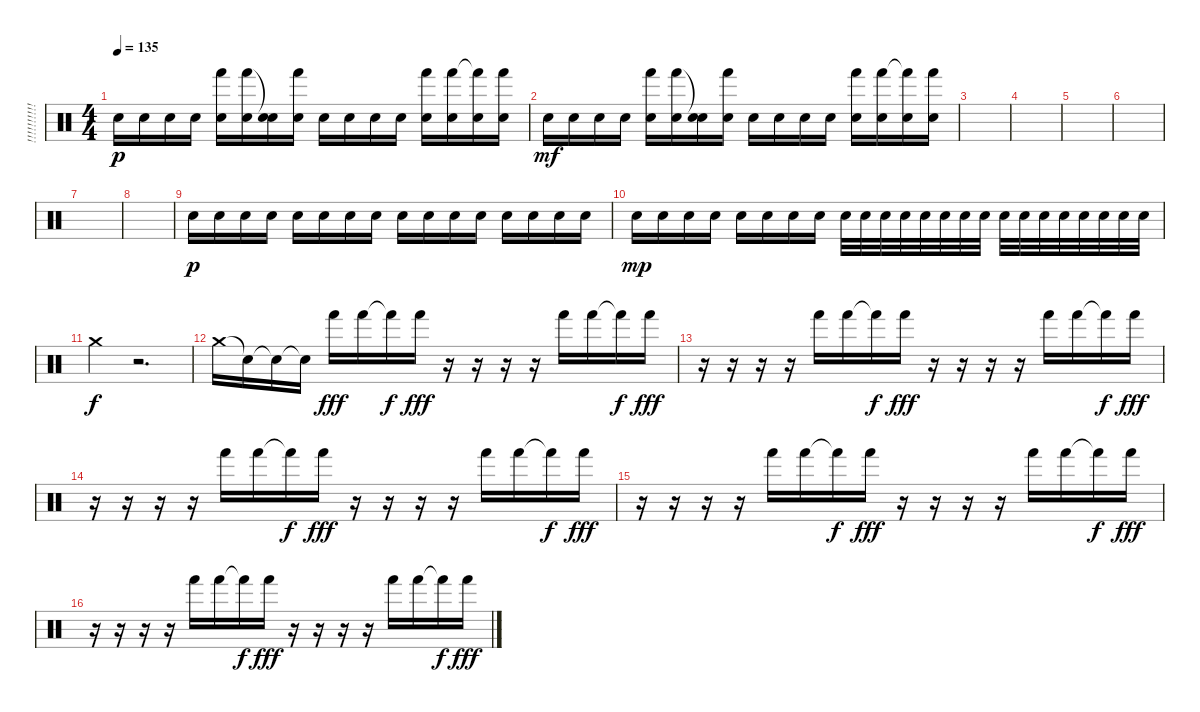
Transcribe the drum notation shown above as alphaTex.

\track ("!!!!!!!!!!!!!" "!!!!!!!!!!") {instrument percussion}
\staff {score}
\articulation defaults
\ts (4 4)
\tempo 135
\clef neutral
\ks c "Electric Snare (hit)".16{dy p} "Electric Snare (hit)".16 "Electric Snare (hit)".16 "Electric Snare (hit)".16
("Hand (hit)" "Electric Snare (hit)").16 ("Hand (hit)" "Electric Snare (hit)").16 ("Snare (hit)"{t} "Electric Snare (hit)").16 ("Hand (hit)" "Electric Snare (hit)").16 "Electric Snare (hit)".16 "Electric Snare (hit)".16 "Electric Snare (hit)".16 "Electric Snare (hit)".16 ("Hand (hit)" "Electric Snare (hit)").16 ("Hand (hit)" "Electric Snare (hit)").16 ("Hand (hit)"{t} "Electric Snare (hit)").16 ("Hand (hit)" "Electric Snare (hit)").16 |
"Electric Snare (hit)".16{dy mf} "Electric Snare (hit)".16 "Electric Snare (hit)".16 "Electric Snare (hit)".16 ("Hand (hit)" "Electric Snare (hit)").16 ("Hand (hit)" "Electric Snare (hit)").16 ("Snare (hit)"{t} "Electric Snare (hit)").16 ("Hand (hit)" "Electric Snare (hit)").16 "Electric Snare (hit)".16 "Electric Snare (hit)".16 "Electric Snare (hit)".16 "Electric Snare (hit)".16 ("Hand (hit)" "Electric Snare (hit)").16 ("Hand (hit)" "Electric Snare (hit)").16 ("Hand (hit)"{t} "Electric Snare (hit)").16 ("Hand (hit)" "Electric Snare (hit)").16 |
|
|
|
|
|
|
"Electric Snare (hit)".16{dy p} "Electric Snare (hit)".16 "Electric Snare (hit)".16 "Electric Snare (hit)".16 "Electric Snare (hit)".16 "Electric Snare (hit)".16 "Electric Snare (hit)".16 "Electric Snare (hit)".16 "Electric Snare (hit)".16 "Electric Snare (hit)".16 "Electric Snare (hit)".16 "Electric Snare (hit)".16 "Electric Snare (hit)".16 "Electric Snare (hit)".16 "Electric Snare (hit)".16 "Electric Snare (hit)".16 |
"Electric Snare (hit)".16{dy mp} "Electric Snare (hit)".16 "Electric Snare (hit)".16 "Electric Snare (hit)".16 "Electric Snare (hit)".16 "Electric Snare (hit)".16 "Electric Snare (hit)".16 "Electric Snare (hit)".16 "Electric Snare (hit)".32 "Electric Snare (hit)".32 "Electric Snare (hit)".32 "Electric Snare (hit)".32 "Electric Snare (hit)".32 "Electric Snare (hit)".32 "Electric Snare (hit)".32 "Electric Snare (hit)".32 "Electric Snare (hit)".32 "Electric Snare (hit)".32 "Electric Snare (hit)".32 "Electric Snare (hit)".32 "Electric Snare (hit)".32 "Electric Snare (hit)".32 "Electric Snare (hit)".32 "Electric Snare (hit)".32 |
"Crash medium (hit)".4{dy f} r.2{d} |
"Crash medium (hit)".16 "Snare (hit)"{t}.16 "Snare (hit)"{t}.16 "Snare (hit)"{t}.16 "Hand (hit)".16{dy fff} "Hand (hit)".16 "Hand (hit)"{t}.16{dy f} "Hand (hit)".16{dy fff} r.16 r.16 r.16 r.16 "Hand (hit)".16 "Hand (hit)".16 "Hand (hit)"{t}.16{dy f} "Hand (hit)".16{dy fff} |
r.16 r.16 r.16 r.16 "Hand (hit)".16 "Hand (hit)".16 "Hand (hit)"{t}.16{dy f} "Hand (hit)".16{dy fff} r.16 r.16 r.16 r.16 "Hand (hit)".16 "Hand (hit)".16 "Hand (hit)"{t}.16{dy f} "Hand (hit)".16{dy fff} |
r.16 r.16 r.16 r.16 "Hand (hit)".16 "Hand (hit)".16 "Hand (hit)"{t}.16{dy f} "Hand (hit)".16{dy fff} r.16 r.16 r.16 r.16 "Hand (hit)".16 "Hand (hit)".16 "Hand (hit)"{t}.16{dy f} "Hand (hit)".16{dy fff} |
r.16 r.16 r.16 r.16 "Hand (hit)".16 "Hand (hit)".16 "Hand (hit)"{t}.16{dy f} "Hand (hit)".16{dy fff} r.16 r.16 r.16 r.16 "Hand (hit)".16 "Hand (hit)".16 "Hand (hit)"{t}.16{dy f} "Hand (hit)".16{dy fff} |
r.16 r.16 r.16 r.16 "Hand (hit)".16 "Hand (hit)".16 "Hand (hit)"{t}.16{dy f} "Hand (hit)".16{dy fff} r.16 r.16 r.16 r.16 "Hand (hit)".16 "Hand (hit)".16 "Hand (hit)"{t}.16{dy f} "Hand (hit)".16{dy fff}
